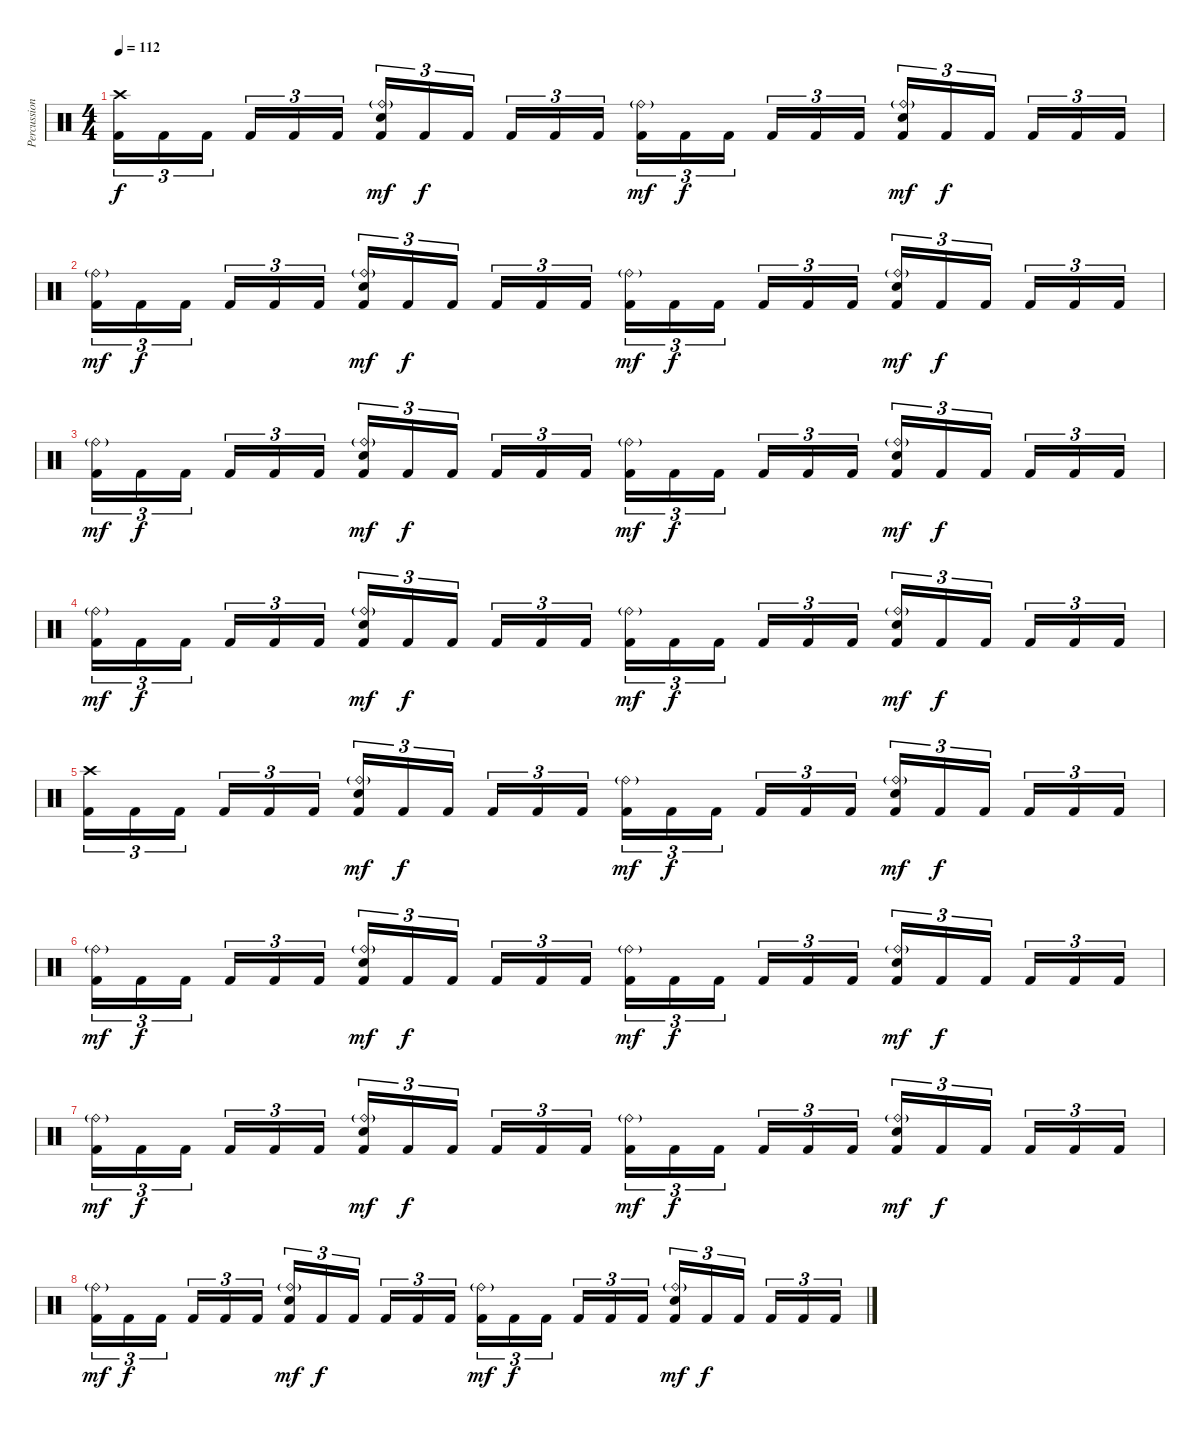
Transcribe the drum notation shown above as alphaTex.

\track ("Percussion" "Percussion") {instrument percussion}
\staff {score}
\articulation defaults
\ts (4 4)
\tempo 112
\clef neutral
\ks c
("Crash high (hit)" "Kick (hit) 2").16{tu (3 2) dy f} "Kick (hit) 2".16{tu (3 2)} "Kick (hit) 2".16{tu (3 2)} "Kick (hit) 2".16{tu (3 2)} "Kick (hit) 2".16{tu (3 2)} "Kick (hit) 2".16{tu (3 2)} ("Ride (bell)"{g} "Electric Snare (hit)" "Kick (hit) 2").16{tu (3 2) dy mf} "Kick (hit) 2".16{tu (3 2) dy f} "Kick (hit) 2".16{tu (3 2)} "Kick (hit) 2".16{tu (3 2)} "Kick (hit) 2".16{tu (3 2)} "Kick (hit) 2".16{tu (3 2)} ("Ride (bell)"{g} "Kick (hit) 2").16{tu (3 2) dy mf} "Kick (hit) 2".16{tu (3 2) dy f} "Kick (hit) 2".16{tu (3 2)} "Kick (hit) 2".16{tu (3 2)} "Kick (hit) 2".16{tu (3 2)} "Kick (hit) 2".16{tu (3 2)} ("Ride (bell)"{g} "Electric Snare (hit)" "Kick (hit) 2").16{tu (3 2) dy mf} "Kick (hit) 2".16{tu (3 2) dy f} "Kick (hit) 2".16{tu (3 2)} "Kick (hit) 2".16{tu (3 2)} "Kick (hit) 2".16{tu (3 2)} "Kick (hit) 2".16{tu (3 2)} |
("Ride (bell)"{g} "Kick (hit) 2").16{tu (3 2) dy mf} "Kick (hit) 2".16{tu (3 2) dy f} "Kick (hit) 2".16{tu (3 2)} "Kick (hit) 2".16{tu (3 2)} "Kick (hit) 2".16{tu (3 2)} "Kick (hit) 2".16{tu (3 2)} ("Ride (bell)"{g} "Electric Snare (hit)" "Kick (hit) 2").16{tu (3 2) dy mf} "Kick (hit) 2".16{tu (3 2) dy f} "Kick (hit) 2".16{tu (3 2)} "Kick (hit) 2".16{tu (3 2)} "Kick (hit) 2".16{tu (3 2)} "Kick (hit) 2".16{tu (3 2)} ("Ride (bell)"{g} "Kick (hit) 2").16{tu (3 2) dy mf} "Kick (hit) 2".16{tu (3 2) dy f} "Kick (hit) 2".16{tu (3 2)} "Kick (hit) 2".16{tu (3 2)} "Kick (hit) 2".16{tu (3 2)} "Kick (hit) 2".16{tu (3 2)} ("Ride (bell)"{g} "Electric Snare (hit)" "Kick (hit) 2").16{tu (3 2) dy mf} "Kick (hit) 2".16{tu (3 2) dy f} "Kick (hit) 2".16{tu (3 2)} "Kick (hit) 2".16{tu (3 2)} "Kick (hit) 2".16{tu (3 2)} "Kick (hit) 2".16{tu (3 2)} |
("Ride (bell)"{g} "Kick (hit) 2").16{tu (3 2) dy mf} "Kick (hit) 2".16{tu (3 2) dy f} "Kick (hit) 2".16{tu (3 2)} "Kick (hit) 2".16{tu (3 2)} "Kick (hit) 2".16{tu (3 2)} "Kick (hit) 2".16{tu (3 2)} ("Ride (bell)"{g} "Electric Snare (hit)" "Kick (hit) 2").16{tu (3 2) dy mf} "Kick (hit) 2".16{tu (3 2) dy f} "Kick (hit) 2".16{tu (3 2)} "Kick (hit) 2".16{tu (3 2)} "Kick (hit) 2".16{tu (3 2)} "Kick (hit) 2".16{tu (3 2)} ("Ride (bell)"{g} "Kick (hit) 2").16{tu (3 2) dy mf} "Kick (hit) 2".16{tu (3 2) dy f} "Kick (hit) 2".16{tu (3 2)} "Kick (hit) 2".16{tu (3 2)} "Kick (hit) 2".16{tu (3 2)} "Kick (hit) 2".16{tu (3 2)} ("Ride (bell)"{g} "Electric Snare (hit)" "Kick (hit) 2").16{tu (3 2) dy mf} "Kick (hit) 2".16{tu (3 2) dy f} "Kick (hit) 2".16{tu (3 2)} "Kick (hit) 2".16{tu (3 2)} "Kick (hit) 2".16{tu (3 2)} "Kick (hit) 2".16{tu (3 2)} |
("Ride (bell)"{g} "Kick (hit) 2").16{tu (3 2) dy mf} "Kick (hit) 2".16{tu (3 2) dy f} "Kick (hit) 2".16{tu (3 2)} "Kick (hit) 2".16{tu (3 2)} "Kick (hit) 2".16{tu (3 2)} "Kick (hit) 2".16{tu (3 2)} ("Ride (bell)"{g} "Electric Snare (hit)" "Kick (hit) 2").16{tu (3 2) dy mf} "Kick (hit) 2".16{tu (3 2) dy f} "Kick (hit) 2".16{tu (3 2)} "Kick (hit) 2".16{tu (3 2)} "Kick (hit) 2".16{tu (3 2)} "Kick (hit) 2".16{tu (3 2)} ("Ride (bell)"{g} "Kick (hit) 2").16{tu (3 2) dy mf} "Kick (hit) 2".16{tu (3 2) dy f} "Kick (hit) 2".16{tu (3 2)} "Kick (hit) 2".16{tu (3 2)} "Kick (hit) 2".16{tu (3 2)} "Kick (hit) 2".16{tu (3 2)} ("Ride (bell)"{g} "Electric Snare (hit)" "Kick (hit) 2").16{tu (3 2) dy mf} "Kick (hit) 2".16{tu (3 2) dy f} "Kick (hit) 2".16{tu (3 2)} "Kick (hit) 2".16{tu (3 2)} "Kick (hit) 2".16{tu (3 2)} "Kick (hit) 2".16{tu (3 2)} |
("Crash high (hit)" "Kick (hit) 2").16{tu (3 2)} "Kick (hit) 2".16{tu (3 2)} "Kick (hit) 2".16{tu (3 2)} "Kick (hit) 2".16{tu (3 2)} "Kick (hit) 2".16{tu (3 2)} "Kick (hit) 2".16{tu (3 2)} ("Ride (bell)"{g} "Electric Snare (hit)" "Kick (hit) 2").16{tu (3 2) dy mf} "Kick (hit) 2".16{tu (3 2) dy f} "Kick (hit) 2".16{tu (3 2)} "Kick (hit) 2".16{tu (3 2)} "Kick (hit) 2".16{tu (3 2)} "Kick (hit) 2".16{tu (3 2)} ("Ride (bell)"{g} "Kick (hit) 2").16{tu (3 2) dy mf} "Kick (hit) 2".16{tu (3 2) dy f} "Kick (hit) 2".16{tu (3 2)} "Kick (hit) 2".16{tu (3 2)} "Kick (hit) 2".16{tu (3 2)} "Kick (hit) 2".16{tu (3 2)} ("Ride (bell)"{g} "Electric Snare (hit)" "Kick (hit) 2").16{tu (3 2) dy mf} "Kick (hit) 2".16{tu (3 2) dy f} "Kick (hit) 2".16{tu (3 2)} "Kick (hit) 2".16{tu (3 2)} "Kick (hit) 2".16{tu (3 2)} "Kick (hit) 2".16{tu (3 2)} |
("Ride (bell)"{g} "Kick (hit) 2").16{tu (3 2) dy mf} "Kick (hit) 2".16{tu (3 2) dy f} "Kick (hit) 2".16{tu (3 2)} "Kick (hit) 2".16{tu (3 2)} "Kick (hit) 2".16{tu (3 2)} "Kick (hit) 2".16{tu (3 2)} ("Ride (bell)"{g} "Electric Snare (hit)" "Kick (hit) 2").16{tu (3 2) dy mf} "Kick (hit) 2".16{tu (3 2) dy f} "Kick (hit) 2".16{tu (3 2)} "Kick (hit) 2".16{tu (3 2)} "Kick (hit) 2".16{tu (3 2)} "Kick (hit) 2".16{tu (3 2)} ("Ride (bell)"{g} "Kick (hit) 2").16{tu (3 2) dy mf} "Kick (hit) 2".16{tu (3 2) dy f} "Kick (hit) 2".16{tu (3 2)} "Kick (hit) 2".16{tu (3 2)} "Kick (hit) 2".16{tu (3 2)} "Kick (hit) 2".16{tu (3 2)} ("Ride (bell)"{g} "Electric Snare (hit)" "Kick (hit) 2").16{tu (3 2) dy mf} "Kick (hit) 2".16{tu (3 2) dy f} "Kick (hit) 2".16{tu (3 2)} "Kick (hit) 2".16{tu (3 2)} "Kick (hit) 2".16{tu (3 2)} "Kick (hit) 2".16{tu (3 2)} |
("Ride (bell)"{g} "Kick (hit) 2").16{tu (3 2) dy mf} "Kick (hit) 2".16{tu (3 2) dy f} "Kick (hit) 2".16{tu (3 2)} "Kick (hit) 2".16{tu (3 2)} "Kick (hit) 2".16{tu (3 2)} "Kick (hit) 2".16{tu (3 2)} ("Ride (bell)"{g} "Electric Snare (hit)" "Kick (hit) 2").16{tu (3 2) dy mf} "Kick (hit) 2".16{tu (3 2) dy f} "Kick (hit) 2".16{tu (3 2)} "Kick (hit) 2".16{tu (3 2)} "Kick (hit) 2".16{tu (3 2)} "Kick (hit) 2".16{tu (3 2)} ("Ride (bell)"{g} "Kick (hit) 2").16{tu (3 2) dy mf} "Kick (hit) 2".16{tu (3 2) dy f} "Kick (hit) 2".16{tu (3 2)} "Kick (hit) 2".16{tu (3 2)} "Kick (hit) 2".16{tu (3 2)} "Kick (hit) 2".16{tu (3 2)} ("Ride (bell)"{g} "Electric Snare (hit)" "Kick (hit) 2").16{tu (3 2) dy mf} "Kick (hit) 2".16{tu (3 2) dy f} "Kick (hit) 2".16{tu (3 2)} "Kick (hit) 2".16{tu (3 2)} "Kick (hit) 2".16{tu (3 2)} "Kick (hit) 2".16{tu (3 2)} |
("Ride (bell)"{g} "Kick (hit) 2").16{tu (3 2) dy mf} "Kick (hit) 2".16{tu (3 2) dy f} "Kick (hit) 2".16{tu (3 2)} "Kick (hit) 2".16{tu (3 2)} "Kick (hit) 2".16{tu (3 2)} "Kick (hit) 2".16{tu (3 2)} ("Ride (bell)"{g} "Electric Snare (hit)" "Kick (hit) 2").16{tu (3 2) dy mf} "Kick (hit) 2".16{tu (3 2) dy f} "Kick (hit) 2".16{tu (3 2)} "Kick (hit) 2".16{tu (3 2)} "Kick (hit) 2".16{tu (3 2)} "Kick (hit) 2".16{tu (3 2)} ("Ride (bell)"{g} "Kick (hit) 2").16{tu (3 2) dy mf} "Kick (hit) 2".16{tu (3 2) dy f} "Kick (hit) 2".16{tu (3 2)} "Kick (hit) 2".16{tu (3 2)} "Kick (hit) 2".16{tu (3 2)} "Kick (hit) 2".16{tu (3 2)} ("Ride (bell)"{g} "Electric Snare (hit)" "Kick (hit) 2").16{tu (3 2) dy mf} "Kick (hit) 2".16{tu (3 2) dy f} "Kick (hit) 2".16{tu (3 2)} "Kick (hit) 2".16{tu (3 2)} "Kick (hit) 2".16{tu (3 2)} "Kick (hit) 2".16{tu (3 2)}
